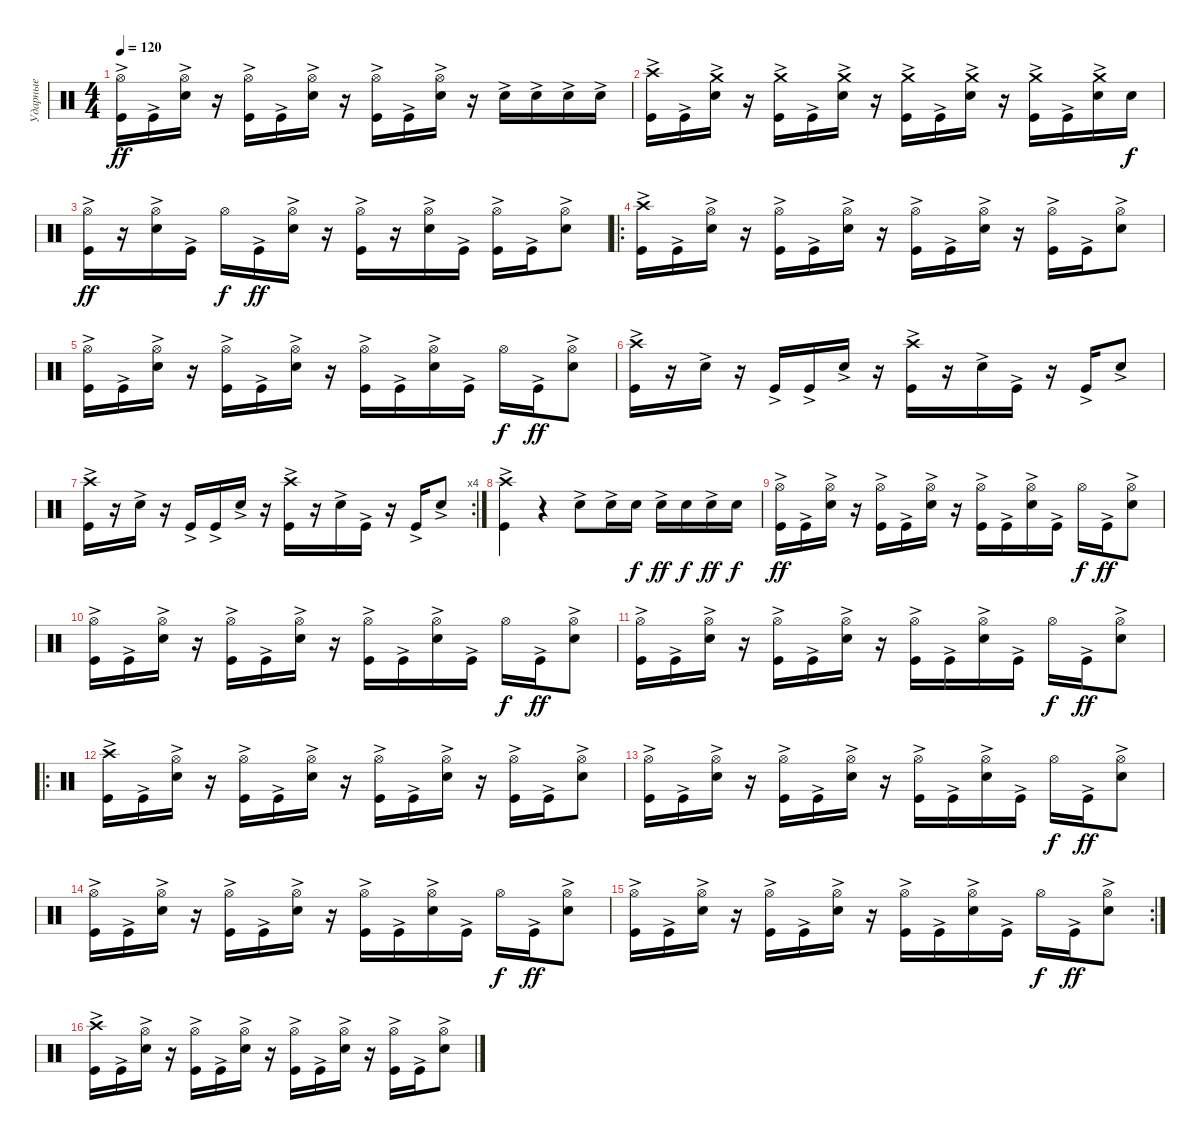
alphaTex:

\track ("Ударные" "Ударные") {instrument percussion}
\staff {score}
\articulation defaults
\ts (4 4)
\tempo 120
\clef neutral
\ks c
("Hi-Hat (open)" "Kick (hit)"{ac}).16{dy ff} "Kick (hit)"{ac}.16 ("Hi-Hat (open)" "Snare (hit) 2"{ac}).16 r.16 ("Hi-Hat (open)" "Kick (hit)"{ac}).16 "Kick (hit)"{ac}.16 ("Hi-Hat (open)" "Snare (hit) 2"{ac}).16 r.16 ("Hi-Hat (open)" "Kick (hit)"{ac}).16 "Kick (hit)"{ac}.16 ("Hi-Hat (open)" "Snare (hit) 2"{ac}).16 r.16 "Snare (hit) 2"{ac}.16 "Snare (hit) 2"{ac}.16 "Snare (hit) 2"{ac}.16 "Snare (hit) 2"{ac}.16 |
("Crash high (hit)" "Kick (hit)"{ac}).16 "Kick (hit)"{ac}.16 ("Crash medium (hit)" "Snare (hit) 2"{ac}).16 r.16 ("Crash medium (hit)" "Kick (hit)"{ac}).16 "Kick (hit)"{ac}.16 ("Crash medium (hit)" "Snare (hit) 2"{ac}).16 r.16 ("Crash medium (hit)" "Kick (hit)"{ac}).16 "Kick (hit)"{ac}.16 ("Crash medium (hit)" "Snare (hit) 2"{ac}).16 r.16 ("Crash medium (hit)" "Kick (hit)"{ac}).16 "Kick (hit)"{ac}.16 ("Crash medium (hit)" "Snare (hit) 2"{ac}).16 "Snare (hit) 2".16{dy f} |
("Hi-Hat (open)" "Kick (hit)"{ac}).16{dy ff} r.16 ("Hi-Hat (open)" "Snare (hit) 2"{ac}).16 "Kick (hit)"{ac}.16 "Hi-Hat (open)".16{dy f} "Kick (hit)"{ac}.16{dy ff} ("Hi-Hat (open)" "Snare (hit) 2"{ac}).16 r.16 ("Hi-Hat (open)" "Kick (hit)"{ac}).16 r.16 ("Hi-Hat (open)" "Snare (hit) 2"{ac}).16 "Kick (hit)"{ac}.16 ("Hi-Hat (open)" "Kick (hit)"{ac}).16 "Kick (hit)"{ac}.16 ("Hi-Hat (open)" "Snare (hit) 2"{ac}).8 |
\ro
("Crash high (hit)" "Kick (hit)"{ac}).16 "Kick (hit)"{ac}.16 ("Hi-Hat (open)" "Snare (hit) 2"{ac}).16 r.16 ("Hi-Hat (open)" "Kick (hit)"{ac}).16 "Kick (hit)"{ac}.16 ("Hi-Hat (open)" "Snare (hit) 2"{ac}).16 r.16 ("Hi-Hat (open)" "Kick (hit)"{ac}).16 "Kick (hit)"{ac}.16 ("Hi-Hat (open)" "Snare (hit) 2"{ac}).16 r.16 ("Hi-Hat (open)" "Kick (hit)"{ac}).16 "Kick (hit)"{ac}.16 ("Hi-Hat (open)" "Snare (hit) 2"{ac}).8 |
("Hi-Hat (open)" "Kick (hit)"{ac}).16 "Kick (hit)"{ac}.16 ("Hi-Hat (open)" "Snare (hit) 2"{ac}).16 r.16 ("Hi-Hat (open)" "Kick (hit)"{ac}).16 "Kick (hit)"{ac}.16 ("Hi-Hat (open)" "Snare (hit) 2"{ac}).16 r.16 ("Hi-Hat (open)" "Kick (hit)"{ac}).16 "Kick (hit)"{ac}.16 ("Hi-Hat (open)" "Snare (hit) 2"{ac}).16 "Kick (hit)"{ac}.16 "Hi-Hat (open)".16{dy f} "Kick (hit)"{ac}.16{dy ff} ("Hi-Hat (open)" "Snare (hit) 2"{ac}).8 |
("Crash high (hit)" "Kick (hit)"{ac}).16 r.16 "Snare (hit) 2"{ac}.16 r.16 "Kick (hit)"{ac}.16 "Kick (hit)"{ac}.16 "Snare (hit) 2"{ac}.16 r.16 ("Crash high (hit)" "Kick (hit)"{ac}).16 r.16 "Snare (hit) 2"{ac}.16 "Kick (hit)"{ac}.16 r.16 "Kick (hit)"{ac}.16 "Snare (hit) 2"{ac}.8 |
\rc 4
("Crash high (hit)" "Kick (hit)"{ac}).16 r.16 "Snare (hit) 2"{ac}.16 r.16 "Kick (hit)"{ac}.16 "Kick (hit)"{ac}.16 "Snare (hit) 2"{ac}.16 r.16 ("Crash high (hit)" "Kick (hit)"{ac}).16 r.16 "Snare (hit) 2"{ac}.16 "Kick (hit)"{ac}.16 r.16 "Kick (hit)"{ac}.16 "Snare (hit) 2"{ac}.8 |
("Crash high (hit)" "Kick (hit)"{ac}).4 r.4 "Snare (hit) 2"{ac}.8 "Snare (hit) 2"{ac}.16 "Snare (hit) 2".16{dy f} "Snare (hit) 2"{ac}.16{dy ff} "Snare (hit) 2".16{dy f} "Snare (hit) 2"{ac}.16{dy ff} "Snare (hit) 2".16{dy f} |
("Hi-Hat (open)" "Kick (hit)"{ac}).16{dy ff} "Kick (hit)"{ac}.16 ("Hi-Hat (open)" "Snare (hit) 2"{ac}).16 r.16 ("Hi-Hat (open)" "Kick (hit)"{ac}).16 "Kick (hit)"{ac}.16 ("Hi-Hat (open)" "Snare (hit) 2"{ac}).16 r.16 ("Hi-Hat (open)" "Kick (hit)"{ac}).16 "Kick (hit)"{ac}.16 ("Hi-Hat (open)" "Snare (hit) 2"{ac}).16 "Kick (hit)"{ac}.16 "Hi-Hat (open)".16{dy f} "Kick (hit)"{ac}.16{dy ff} ("Hi-Hat (open)" "Snare (hit) 2"{ac}).8 |
("Hi-Hat (open)" "Kick (hit)"{ac}).16 "Kick (hit)"{ac}.16 ("Hi-Hat (open)" "Snare (hit) 2"{ac}).16 r.16 ("Hi-Hat (open)" "Kick (hit)"{ac}).16 "Kick (hit)"{ac}.16 ("Hi-Hat (open)" "Snare (hit) 2"{ac}).16 r.16 ("Hi-Hat (open)" "Kick (hit)"{ac}).16 "Kick (hit)"{ac}.16 ("Hi-Hat (open)" "Snare (hit) 2"{ac}).16 "Kick (hit)"{ac}.16 "Hi-Hat (open)".16{dy f} "Kick (hit)"{ac}.16{dy ff} ("Hi-Hat (open)" "Snare (hit) 2"{ac}).8 |
("Hi-Hat (open)" "Kick (hit)"{ac}).16 "Kick (hit)"{ac}.16 ("Hi-Hat (open)" "Snare (hit) 2"{ac}).16 r.16 ("Hi-Hat (open)" "Kick (hit)"{ac}).16 "Kick (hit)"{ac}.16 ("Hi-Hat (open)" "Snare (hit) 2"{ac}).16 r.16 ("Hi-Hat (open)" "Kick (hit)"{ac}).16 "Kick (hit)"{ac}.16 ("Hi-Hat (open)" "Snare (hit) 2"{ac}).16 "Kick (hit)"{ac}.16 "Hi-Hat (open)".16{dy f} "Kick (hit)"{ac}.16{dy ff} ("Hi-Hat (open)" "Snare (hit) 2"{ac}).8 |
\ro
("Crash high (hit)" "Kick (hit)"{ac}).16 "Kick (hit)"{ac}.16 ("Hi-Hat (open)" "Snare (hit) 2"{ac}).16 r.16 ("Hi-Hat (open)" "Kick (hit)"{ac}).16 "Kick (hit)"{ac}.16 ("Hi-Hat (open)" "Snare (hit) 2"{ac}).16 r.16 ("Hi-Hat (open)" "Kick (hit)"{ac}).16 "Kick (hit)"{ac}.16 ("Hi-Hat (open)" "Snare (hit) 2"{ac}).16 r.16 ("Hi-Hat (open)" "Kick (hit)"{ac}).16 "Kick (hit)"{ac}.16 ("Hi-Hat (open)" "Snare (hit) 2"{ac}).8 |
("Hi-Hat (open)" "Kick (hit)"{ac}).16 "Kick (hit)"{ac}.16 ("Hi-Hat (open)" "Snare (hit) 2"{ac}).16 r.16 ("Hi-Hat (open)" "Kick (hit)"{ac}).16 "Kick (hit)"{ac}.16 ("Hi-Hat (open)" "Snare (hit) 2"{ac}).16 r.16 ("Hi-Hat (open)" "Kick (hit)"{ac}).16 "Kick (hit)"{ac}.16 ("Hi-Hat (open)" "Snare (hit) 2"{ac}).16 "Kick (hit)"{ac}.16 "Hi-Hat (open)".16{dy f} "Kick (hit)"{ac}.16{dy ff} ("Hi-Hat (open)" "Snare (hit) 2"{ac}).8 |
("Hi-Hat (open)" "Kick (hit)"{ac}).16 "Kick (hit)"{ac}.16 ("Hi-Hat (open)" "Snare (hit) 2"{ac}).16 r.16 ("Hi-Hat (open)" "Kick (hit)"{ac}).16 "Kick (hit)"{ac}.16 ("Hi-Hat (open)" "Snare (hit) 2"{ac}).16 r.16 ("Hi-Hat (open)" "Kick (hit)"{ac}).16 "Kick (hit)"{ac}.16 ("Hi-Hat (open)" "Snare (hit) 2"{ac}).16 "Kick (hit)"{ac}.16 "Hi-Hat (open)".16{dy f} "Kick (hit)"{ac}.16{dy ff} ("Hi-Hat (open)" "Snare (hit) 2"{ac}).8 |
\rc 2
("Hi-Hat (open)" "Kick (hit)"{ac}).16 "Kick (hit)"{ac}.16 ("Hi-Hat (open)" "Snare (hit) 2"{ac}).16 r.16 ("Hi-Hat (open)" "Kick (hit)"{ac}).16 "Kick (hit)"{ac}.16 ("Hi-Hat (open)" "Snare (hit) 2"{ac}).16 r.16 ("Hi-Hat (open)" "Kick (hit)"{ac}).16 "Kick (hit)"{ac}.16 ("Hi-Hat (open)" "Snare (hit) 2"{ac}).16 "Kick (hit)"{ac}.16 "Hi-Hat (open)".16{dy f} "Kick (hit)"{ac}.16{dy ff} ("Hi-Hat (open)" "Snare (hit) 2"{ac}).8 |
("Crash high (hit)" "Kick (hit)"{ac}).16 "Kick (hit)"{ac}.16 ("Hi-Hat (open)" "Snare (hit) 2"{ac}).16 r.16 ("Hi-Hat (open)" "Kick (hit)"{ac}).16 "Kick (hit)"{ac}.16 ("Hi-Hat (open)" "Snare (hit) 2"{ac}).16 r.16 ("Hi-Hat (open)" "Kick (hit)"{ac}).16 "Kick (hit)"{ac}.16 ("Hi-Hat (open)" "Snare (hit) 2"{ac}).16 r.16 ("Hi-Hat (open)" "Kick (hit)"{ac}).16 "Kick (hit)"{ac}.16 ("Hi-Hat (open)" "Snare (hit) 2"{ac}).8
